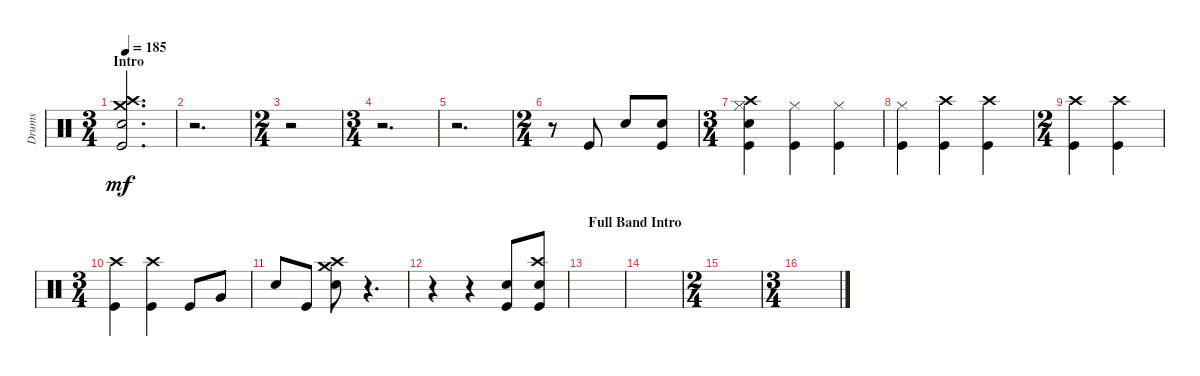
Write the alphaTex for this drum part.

\track ("Drums" "Drums") {instrument percussion}
\staff {score}
\articulation defaults
\ts (3 4)
\section ("" "Intro")
\tempo 185
\clef neutral
\ks c
("Snare (hit) 2" "Crash high (hit)" "Crash medium (hit)" "Kick (hit)").2{d dy mf} |
r.2{d} |
\ts (2 4)
r.2 |
\ts (3 4)
r.2{d} |
r.2{d} |
\ts (2 4)
r.8 "Kick (hit)".8 "Snare (hit) 2".8 ("Kick (hit)" "Snare (hit) 2").8 |
\ts (3 4)
("Crash high (hit)" "Kick (hit)" "Snare (hit) 2" "Hi-Hat (closed)").4 ("Kick (hit)" "Hi-Hat (closed)").4 ("Kick (hit)" "Hi-Hat (closed)").4 |
("Kick (hit)" "Hi-Hat (closed)").4 ("Kick (hit)" "Crash high (hit)").4 ("Kick (hit)" "Crash high (hit)").4 |
\ts (2 4)
("Kick (hit)" "Crash high (hit)").4 ("Kick (hit)" "Crash high (hit)").4 |
\ts (3 4)
("Kick (hit)" "Crash high (hit)").4 ("Kick (hit)" "Crash high (hit)").4 "Kick (hit)".8 "Very Low Tom (hit)".8 |
"Snare (hit) 2".8 "Kick (hit)".8 ("Snare (hit) 2" "Crash high (hit)" "Crash medium (hit)").8 r.4{d} |
r.4 r.4 ("Kick (hit)" "Snare (hit) 2").8 ("Kick (hit)" "Snare (hit) 2" "Crash high (hit)").8 |
\section ("" "Full Band Intro")
|
|
\ts (2 4)
|
\ts (3 4)
